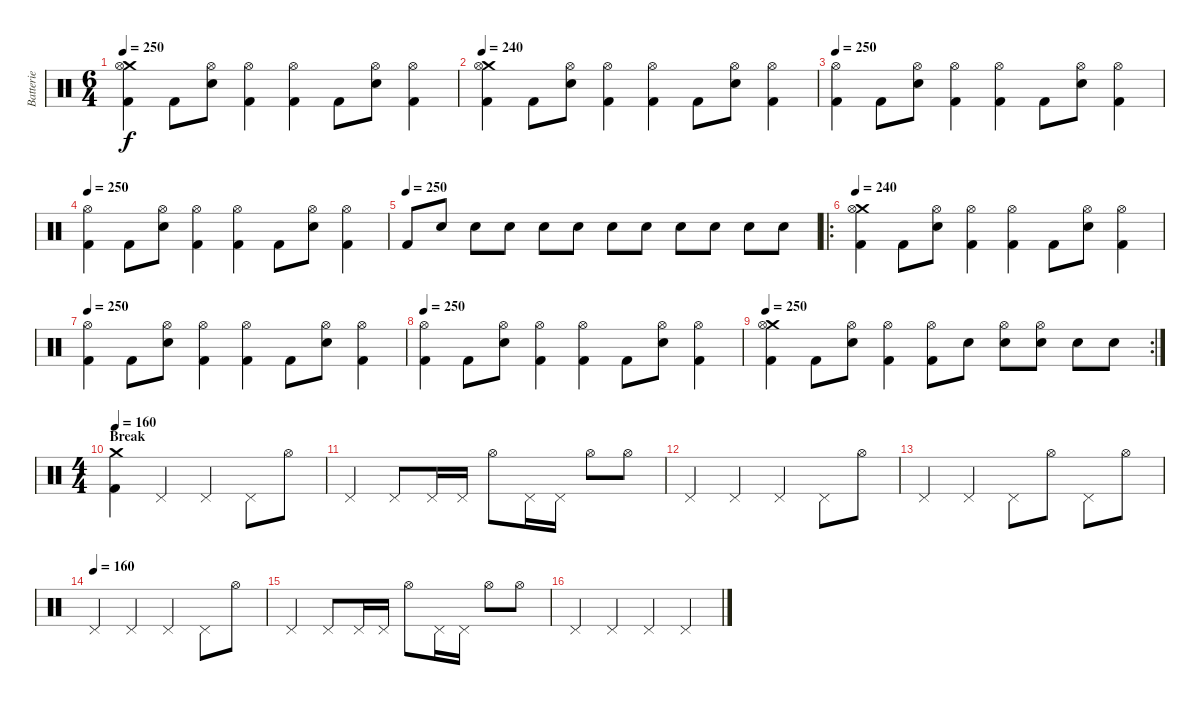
\track ("Batterie" "Batterie") {instrument percussion}
\staff {score}
\articulation defaults
\ts (6 4)
\tempo 250
\clef neutral
\ks c
("Crash medium (hit)" "Hi-Hat (open)" "Kick (hit) 2").4{dy f} "Kick (hit) 2".8 ("Hi-Hat (open)" "Electric Snare (hit)").8 ("Hi-Hat (open)" "Kick (hit) 2").4 ("Hi-Hat (open)" "Kick (hit) 2").4 "Kick (hit) 2".8 ("Hi-Hat (open)" "Electric Snare (hit)").8 ("Hi-Hat (open)" "Kick (hit) 2").4 |
\tempo 240
("Crash medium (hit)" "Hi-Hat (open)" "Kick (hit) 2").4 "Kick (hit) 2".8 ("Hi-Hat (open)" "Electric Snare (hit)").8 ("Hi-Hat (open)" "Kick (hit) 2").4 ("Hi-Hat (open)" "Kick (hit) 2").4 "Kick (hit) 2".8 ("Hi-Hat (open)" "Electric Snare (hit)").8 ("Hi-Hat (open)" "Kick (hit) 2").4 |
\tempo 250
("Hi-Hat (open)" "Kick (hit) 2").4 "Kick (hit) 2".8 ("Hi-Hat (open)" "Electric Snare (hit)").8 ("Hi-Hat (open)" "Kick (hit) 2").4 ("Hi-Hat (open)" "Kick (hit) 2").4 "Kick (hit) 2".8 ("Hi-Hat (open)" "Electric Snare (hit)").8 ("Hi-Hat (open)" "Kick (hit) 2").4 |
\tempo 250
("Hi-Hat (open)" "Kick (hit) 2").4 "Kick (hit) 2".8 ("Hi-Hat (open)" "Electric Snare (hit)").8 ("Hi-Hat (open)" "Kick (hit) 2").4 ("Hi-Hat (open)" "Kick (hit) 2").4 "Kick (hit) 2".8 ("Hi-Hat (open)" "Electric Snare (hit)").8 ("Hi-Hat (open)" "Kick (hit) 2").4 |
\tempo (250)
"Kick (hit) 2".8 "Electric Snare (hit)".8 "Electric Snare (hit)".8 "Electric Snare (hit)".8 "Electric Snare (hit)".8 "Electric Snare (hit)".8 "Electric Snare (hit)".8 "Electric Snare (hit)".8 "Electric Snare (hit)".8 "Electric Snare (hit)".8 "Electric Snare (hit)".8 "Electric Snare (hit)".8 |
\ro
\tempo 240
("Crash medium (hit)" "Hi-Hat (open)" "Kick (hit) 2").4 "Kick (hit) 2".8 ("Hi-Hat (open)" "Electric Snare (hit)").8 ("Hi-Hat (open)" "Kick (hit) 2").4 ("Hi-Hat (open)" "Kick (hit) 2").4 "Kick (hit) 2".8 ("Hi-Hat (open)" "Electric Snare (hit)").8 ("Hi-Hat (open)" "Kick (hit) 2").4 |
\tempo 250
("Hi-Hat (open)" "Kick (hit) 2").4 "Kick (hit) 2".8 ("Hi-Hat (open)" "Electric Snare (hit)").8 ("Hi-Hat (open)" "Kick (hit) 2").4 ("Hi-Hat (open)" "Kick (hit) 2").4 "Kick (hit) 2".8 ("Hi-Hat (open)" "Electric Snare (hit)").8 ("Hi-Hat (open)" "Kick (hit) 2").4 |
\tempo 250
("Hi-Hat (open)" "Kick (hit) 2").4 "Kick (hit) 2".8 ("Hi-Hat (open)" "Electric Snare (hit)").8 ("Hi-Hat (open)" "Kick (hit) 2").4 ("Hi-Hat (open)" "Kick (hit) 2").4 "Kick (hit) 2".8 ("Hi-Hat (open)" "Electric Snare (hit)").8 ("Hi-Hat (open)" "Kick (hit) 2").4 |
\rc 2
\tempo 250
("Crash medium (hit)" "Hi-Hat (open)" "Kick (hit) 2").4 "Kick (hit) 2".8 ("Hi-Hat (open)" "Electric Snare (hit)").8 ("Hi-Hat (open)" "Kick (hit) 2").4 ("Hi-Hat (open)" "Kick (hit) 2").8 "Electric Snare (hit)".8 ("Hi-Hat (open)" "Electric Snare (hit)").8 ("Hi-Hat (open)" "Electric Snare (hit)").8 "Electric Snare (hit)".8 "Electric Snare (hit)".8 |
\ts (4 4)
\section ("" "Break")
\tempo 160
("Crash medium (hit)" "Kick (hit) 2").4 "Pedal Hi-Hat (hit)".4 "Pedal Hi-Hat (hit)".4 "Pedal Hi-Hat (hit)".8 "Hi-Hat (open)".8 |
"Pedal Hi-Hat (hit)".4 "Pedal Hi-Hat (hit)".8 "Pedal Hi-Hat (hit)".16 "Pedal Hi-Hat (hit)".16 "Hi-Hat (open)".8 "Pedal Hi-Hat (hit)".16 "Pedal Hi-Hat (hit)".16 "Hi-Hat (open)".8 "Hi-Hat (open)".8 |
"Pedal Hi-Hat (hit)".4 "Pedal Hi-Hat (hit)".4 "Pedal Hi-Hat (hit)".4 "Pedal Hi-Hat (hit)".8 "Hi-Hat (open)".8 |
"Pedal Hi-Hat (hit)".4 "Pedal Hi-Hat (hit)".4 "Pedal Hi-Hat (hit)".8 "Hi-Hat (open)".8 "Pedal Hi-Hat (hit)".8 "Hi-Hat (open)".8 |
\tempo (160)
"Pedal Hi-Hat (hit)".4 "Pedal Hi-Hat (hit)".4 "Pedal Hi-Hat (hit)".4 "Pedal Hi-Hat (hit)".8 "Hi-Hat (open)".8 |
"Pedal Hi-Hat (hit)".4 "Pedal Hi-Hat (hit)".8 "Pedal Hi-Hat (hit)".16 "Pedal Hi-Hat (hit)".16 "Hi-Hat (open)".8 "Pedal Hi-Hat (hit)".16 "Pedal Hi-Hat (hit)".16 "Hi-Hat (open)".8 "Hi-Hat (open)".8 |
"Pedal Hi-Hat (hit)".4 "Pedal Hi-Hat (hit)".4 "Pedal Hi-Hat (hit)".4 "Pedal Hi-Hat (hit)".4
